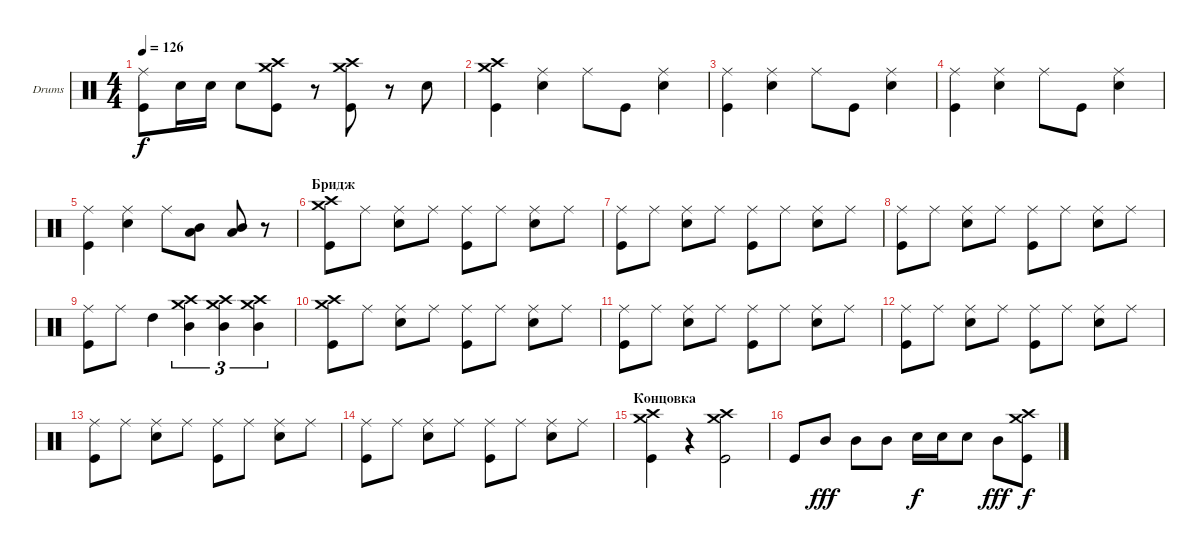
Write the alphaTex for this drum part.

\bracketExtendMode groupsimilarinstruments
\firstSystemTrackNameOrientation horizontal
\otherSystemsTrackNameOrientation horizontal
\track ("Александр Манякин" "Drums") {instrument percussion}
\staff {score}
\articulation defaults
\ts (4 4)
\tempo 126
\clef neutral
\ks c
("Kick (hit)" "Ride (middle)").8{dy f} "Snare (hit) 2".16 "Snare (hit) 2".16 "Snare (hit) 2".8 ("Kick (hit)" "Crash medium (hit)" "Crash high (hit)").8 r.8 ("Kick (hit)" "Crash high (hit)" "Crash medium (hit)").8 r.8 "Snare (hit) 2".8 |
("Kick (hit)" "Crash medium (hit)" "Crash high (hit)").4 ("Snare (hit) 2" "Ride (middle)").4 "Ride (middle)".8 "Kick (hit)".8 ("Snare (hit) 2" "Ride (middle)").4 |
("Kick (hit)" "Ride (middle)").4 ("Snare (hit) 2" "Ride (middle)").4 "Ride (middle)".8 "Kick (hit)".8 ("Snare (hit) 2" "Ride (middle)").4 |
("Kick (hit)" "Ride (middle)").4 ("Snare (hit) 2" "Ride (middle)").4 "Ride (middle)".8 "Kick (hit)".8 ("Snare (hit) 2" "Ride (middle)").4 |
("Kick (hit)" "Ride (middle)").4 ("Snare (hit) 2" "Ride (middle)").4 "Ride (middle)".8 ("Mid Tom (hit)" "Low Tom (hit)").8 ("Mid Tom (hit)" "Low Tom (hit)").8 r.8 |
\section ("" "Бридж")
("Kick (hit)" "Crash medium (hit)" "Crash high (hit)").8 "Ride (middle)".8 ("Snare (hit) 2" "Ride (middle)").8 "Ride (middle)".8 ("Kick (hit)" "Ride (middle)").8 "Ride (middle)".8 ("Snare (hit) 2" "Ride (middle)").8 "Ride (middle)".8 |
("Kick (hit)" "Ride (middle)").8 "Ride (middle)".8 ("Snare (hit) 2" "Ride (middle)").8 "Ride (middle)".8 ("Kick (hit)" "Ride (middle)").8 "Ride (middle)".8 ("Snare (hit) 2" "Ride (middle)").8 "Ride (middle)".8 |
("Kick (hit)" "Ride (middle)").8 "Ride (middle)".8 ("Snare (hit) 2" "Ride (middle)").8 "Ride (middle)".8 ("Kick (hit)" "Ride (middle)").8 "Ride (middle)".8 ("Snare (hit) 2" "Ride (middle)").8 "Ride (middle)".8 |
("Kick (hit)" "Ride (middle)").8 "Ride (middle)".8 "High Tom (hit)".4 ("Crash medium (hit)" "Crash high (hit)" "Mid Tom (hit)").4{tu (3 2)} ("Crash medium (hit)" "Crash high (hit)" "Mid Tom (hit)").4{tu (3 2)} ("Crash medium (hit)" "Crash high (hit)" "Mid Tom (hit)").4{tu (3 2)} |
("Kick (hit)" "Crash medium (hit)" "Crash high (hit)").8 "Ride (middle)".8 ("Snare (hit) 2" "Ride (middle)").8 "Ride (middle)".8 ("Kick (hit)" "Ride (middle)").8 "Ride (middle)".8 ("Snare (hit) 2" "Ride (middle)").8 "Ride (middle)".8 |
("Kick (hit)" "Ride (middle)").8 "Ride (middle)".8 ("Snare (hit) 2" "Ride (middle)").8 "Ride (middle)".8 ("Kick (hit)" "Ride (middle)").8 "Ride (middle)".8 ("Snare (hit) 2" "Ride (middle)").8 "Ride (middle)".8 |
("Kick (hit)" "Ride (middle)").8 "Ride (middle)".8 ("Snare (hit) 2" "Ride (middle)").8 "Ride (middle)".8 ("Kick (hit)" "Ride (middle)").8 "Ride (middle)".8 ("Snare (hit) 2" "Ride (middle)").8 "Ride (middle)".8 |
("Kick (hit)" "Ride (middle)").8 "Ride (middle)".8 ("Snare (hit) 2" "Ride (middle)").8 "Ride (middle)".8 ("Kick (hit)" "Ride (middle)").8 "Ride (middle)".8 ("Snare (hit) 2" "Ride (middle)").8 "Ride (middle)".8 |
("Kick (hit)" "Ride (middle)").8 "Ride (middle)".8 ("Snare (hit) 2" "Ride (middle)").8 "Ride (middle)".8 ("Kick (hit)" "Ride (middle)").8 "Ride (middle)".8 ("Snare (hit) 2" "Ride (middle)").8 "Ride (middle)".8 |
\section ("" "Концовка")
("Kick (hit)" "Crash medium (hit)" "Crash high (hit)").4 r.4 ("Kick (hit)" "Crash medium (hit)" "Crash high (hit)").2 |
"Kick (hit)".8 "Mid Tom (hit)".8{dy fff} "Mid Tom (hit)".8 "Mid Tom (hit)".8 "Snare (hit) 2".16{dy f} "Snare (hit) 2".16 "Snare (hit) 2".8 "Mid Tom (hit)".8{dy fff} ("Kick (hit)" "Crash medium (hit)" "Crash high (hit)").8{dy f}
